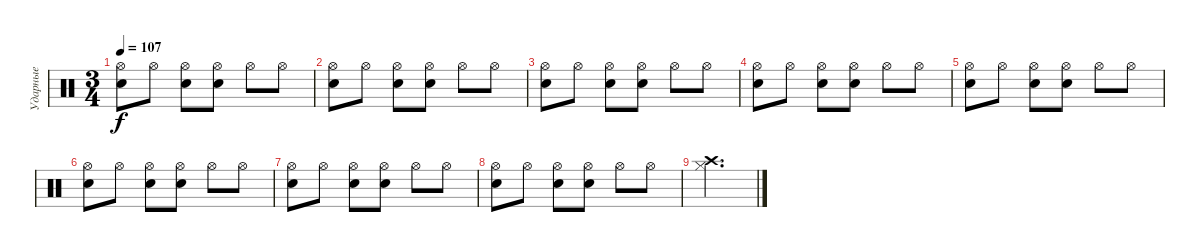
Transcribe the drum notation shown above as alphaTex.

\track ("Ударные" "Ударные") {instrument percussion}
\staff {score}
\articulation defaults
\ts (3 4)
\tempo 107
\clef neutral
\ks c
("Hi-Hat (open)" "Snare (hit) 2").8{dy f} "Hi-Hat (open)".8 ("Hi-Hat (open)" "Snare (hit) 2").8 ("Hi-Hat (open)" "Snare (hit) 2").8 "Hi-Hat (open)".8 "Hi-Hat (open)".8 |
("Hi-Hat (open)" "Snare (hit) 2").8 "Hi-Hat (open)".8 ("Hi-Hat (open)" "Snare (hit) 2").8 ("Hi-Hat (open)" "Snare (hit) 2").8 "Hi-Hat (open)".8 "Hi-Hat (open)".8 |
("Hi-Hat (open)" "Snare (hit) 2").8 "Hi-Hat (open)".8 ("Hi-Hat (open)" "Snare (hit) 2").8 ("Hi-Hat (open)" "Snare (hit) 2").8 "Hi-Hat (open)".8 "Hi-Hat (open)".8 |
("Hi-Hat (open)" "Snare (hit) 2").8 "Hi-Hat (open)".8 ("Hi-Hat (open)" "Snare (hit) 2").8 ("Hi-Hat (open)" "Snare (hit) 2").8 "Hi-Hat (open)".8 "Hi-Hat (open)".8 |
("Hi-Hat (open)" "Snare (hit) 2").8 "Hi-Hat (open)".8 ("Hi-Hat (open)" "Snare (hit) 2").8 ("Hi-Hat (open)" "Snare (hit) 2").8 "Hi-Hat (open)".8 "Hi-Hat (open)".8 |
("Hi-Hat (open)" "Snare (hit) 2").8 "Hi-Hat (open)".8 ("Hi-Hat (open)" "Snare (hit) 2").8 ("Hi-Hat (open)" "Snare (hit) 2").8 "Hi-Hat (open)".8 "Hi-Hat (open)".8 |
("Hi-Hat (open)" "Snare (hit) 2").8 "Hi-Hat (open)".8 ("Hi-Hat (open)" "Snare (hit) 2").8 ("Hi-Hat (open)" "Snare (hit) 2").8 "Hi-Hat (open)".8 "Hi-Hat (open)".8 |
("Hi-Hat (open)" "Snare (hit) 2").8 "Hi-Hat (open)".8 ("Hi-Hat (open)" "Snare (hit) 2").8 ("Hi-Hat (open)" "Snare (hit) 2").8 "Hi-Hat (open)".8 "Hi-Hat (open)".8 |
("Hi-Hat (closed)" "Crash high (hit)").2{d}
